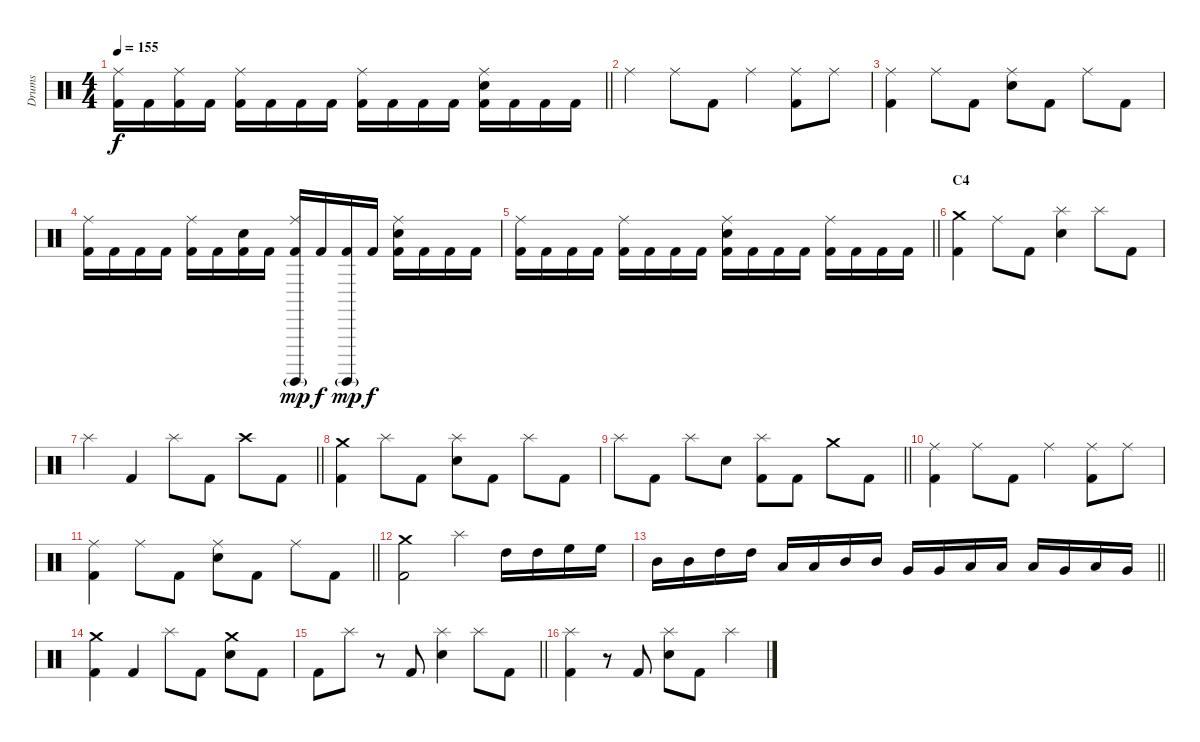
\track ("Drums" "Drums") {instrument percussion}
\staff {score}
\articulation defaults
\ts (4 4)
\tempo 155
\clef neutral
\barLineRight lightlight
\ks c
("Ride (middle)" "Kick (hit) 2").16{dy f} "Kick (hit) 2".16 ("Ride (middle)" "Kick (hit) 2").16 "Kick (hit) 2".16 ("Ride (middle)" "Kick (hit) 2").16 "Kick (hit) 2".16 "Kick (hit) 2".16 "Kick (hit) 2".16 ("Ride (middle)" "Kick (hit) 2").16 "Kick (hit) 2".16 "Kick (hit) 2".16 "Kick (hit) 2".16 ("Ride (middle)" "Electric Snare (hit)" "Kick (hit) 2").16 "Kick (hit) 2".16 "Kick (hit) 2".16 "Kick (hit) 2".16 |
\section ("" "")
"Ride (middle)".4 "Ride (middle)".8 "Kick (hit) 2".8 "Ride (middle)".4 ("Ride (middle)" "Kick (hit) 2").8 "Ride (middle)".8 |
("Ride (middle)" "Kick (hit) 2").4 "Ride (middle)".8 "Kick (hit) 2".8 ("Ride (middle)" "Electric Snare (hit)").8 "Kick (hit) 2".8 "Ride (middle)".8 "Kick (hit) 2".8 |
("Ride (middle)" "Kick (hit) 2").16 "Kick (hit) 2".16 "Kick (hit) 2".16 "Kick (hit) 2".16 ("Ride (middle)" "Kick (hit) 2").16 "Kick (hit) 2".16 ("Electric Snare (hit)" "Kick (hit) 2").16 "Kick (hit) 2".16 ("Ride (middle)" "Surdo (hit)"{g} "Kick (hit) 2").16{dy mp} "Kick (hit) 2".16{dy f} ("Surdo (hit)"{g} "Kick (hit) 2").16{dy mp} "Kick (hit) 2".16{dy f} ("Ride (middle)" "Electric Snare (hit)" "Kick (hit) 2").16 "Kick (hit) 2".16 "Kick (hit) 2".16 "Kick (hit) 2".16 |
\barLineRight lightlight
("Ride (middle)" "Kick (hit) 2").16 "Kick (hit) 2".16 "Kick (hit) 2".16 "Kick (hit) 2".16 ("Ride (middle)" "Kick (hit) 2").16 "Kick (hit) 2".16 "Kick (hit) 2".16 "Kick (hit) 2".16 ("Ride (middle)" "Electric Snare (hit)" "Kick (hit) 2").16 "Kick (hit) 2".16 "Kick (hit) 2".16 "Kick (hit) 2".16 ("Ride (middle)" "Kick (hit) 2").16 "Kick (hit) 2".16 "Kick (hit) 2".16 "Kick (hit) 2".16 |
\section ("" "C4")
("Crash medium (hit)" "Kick (hit) 2").4 "Ride (middle)".8 "Kick (hit) 2".8 ("Splash (hit)" "Electric Snare (hit)").4 "Splash (hit)".8 "Kick (hit) 2".8 |
\barLineRight lightlight "Splash (hit)".4 "Kick (hit) 2".4 "Splash (hit)".8 "Kick (hit) 2".8 "Crash high (hit)".8 "Kick (hit) 2".8
|
\section ("" "")
("Crash medium (hit)" "Kick (hit) 2").4 "Splash (hit)".8 "Kick (hit) 2".8 ("Splash (hit)" "Electric Snare (hit)").8 "Kick (hit) 2".8 "Splash (hit)".8 "Kick (hit) 2".8 |
\barLineRight lightlight "Splash (hit)".8 "Kick (hit) 2".8 "Splash (hit)".8 "Electric Snare (hit)".8
("Splash (hit)" "Kick (hit) 2").8 "Kick (hit) 2".8 "Crash medium (hit)".8 "Kick (hit) 2".8 |
\section ("" "")
("Ride (middle)" "Kick (hit) 2").4 "Ride (middle)".8 "Kick (hit) 2".8 "Ride (middle)".4 ("Ride (middle)" "Kick (hit) 2").8 "Ride (middle)".8 |
\barLineRight lightlight
("Ride (middle)" "Kick (hit) 2").4 "Ride (middle)".8 "Kick (hit) 2".8 ("Ride (middle)" "Electric Snare (hit)").8 "Kick (hit) 2".8 "Ride (middle)".8 "Kick (hit) 2".8 |
\section ("" "")
("Crash medium (hit)" "Kick (hit) 2").2 "Splash (hit)".4 "High Tom (hit)".16 "High Tom (hit)".16 "High Floor Tom (hit)".16 "High Floor Tom (hit)".16 |
\barLineRight lightlight "Mid Tom (hit)".16 "Mid Tom (hit)".16 "High Tom (hit)".16 "High Tom (hit)".16 "Low Tom (hit)".16 "Low Tom (hit)".16 "Mid Tom (hit)".16 "Mid Tom (hit)".16 "Very Low Tom (hit)".16 "Very Low Tom (hit)".16 "Low Tom (hit)".16 "Low Tom (hit)".16 "Low Floor Tom (hit)".16 "Very Low Tom (hit)".16 "Low Floor Tom (hit)".16 "Very Low Tom (hit)".16
|
\section ("" "")
("Crash medium (hit)" "Kick (hit) 2").4 "Kick (hit) 2".4 "Splash (hit)".8 "Kick (hit) 2".8 ("Crash medium (hit)" "Electric Snare (hit)").8 "Kick (hit) 2".8 |
\barLineRight lightlight "Kick (hit) 2".8 "Splash (hit)".8
r.8 "Kick (hit) 2".8 ("Splash (hit)" "Electric Snare (hit)").4 "Splash (hit)".8 "Kick (hit) 2".8 |
\section ("" "")
("Splash (hit)" "Kick (hit) 2").4 r.8 "Kick (hit) 2".8 ("Splash (hit)" "Electric Snare (hit)").8 "Kick (hit) 2".8 "Splash (hit)".4
